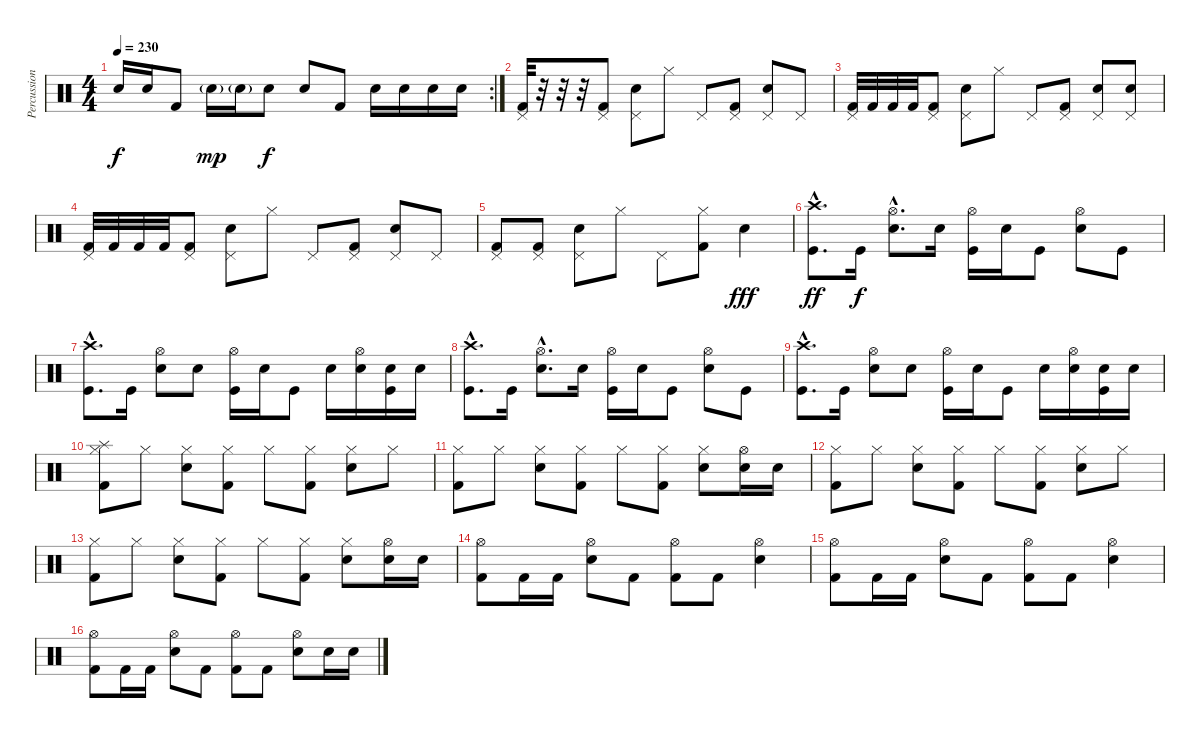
\track ("Percussion" "Percussion") {instrument percussion}
\staff {score}
\articulation defaults
\rc 2
\ts (4 4)
\tempo 230
\clef neutral
\ks c "Electric Snare (hit)".16{dy f} "Electric Snare (hit)".16 "Kick (hit) 2".8 "Electric Snare (hit)"{g}.16{dy mp} "Electric Snare (hit)"{g}.16 "Electric Snare (hit)".8{dy f} "Electric Snare (hit)".8 "Kick (hit) 2".8 "Electric Snare (hit)".16 "Electric Snare (hit)".16 "Electric Snare (hit)".16 "Electric Snare (hit)".16
|
("Pedal Hi-Hat (hit)" "Kick (hit) 2").32 r.32 r.32 r.32 ("Pedal Hi-Hat (hit)" "Kick (hit) 2").8 ("Pedal Hi-Hat (hit)" "Electric Snare (hit)").8 "Hi-Hat (closed)".8 "Pedal Hi-Hat (hit)".8 ("Pedal Hi-Hat (hit)" "Kick (hit) 2").8 ("Pedal Hi-Hat (hit)" "Electric Snare (hit)").8 "Pedal Hi-Hat (hit)".8 |
("Pedal Hi-Hat (hit)" "Kick (hit) 2").32 "Kick (hit) 2".32 "Kick (hit) 2".32 "Kick (hit) 2".32 ("Pedal Hi-Hat (hit)" "Kick (hit) 2").8 ("Pedal Hi-Hat (hit)" "Electric Snare (hit)").8 "Hi-Hat (closed)".8 "Pedal Hi-Hat (hit)".8 ("Pedal Hi-Hat (hit)" "Kick (hit) 2").8 ("Pedal Hi-Hat (hit)" "Electric Snare (hit)").8 ("Pedal Hi-Hat (hit)" "Electric Snare (hit)").8 |
("Pedal Hi-Hat (hit)" "Kick (hit) 2").32 "Kick (hit) 2".32 "Kick (hit) 2".32 "Kick (hit) 2".32 ("Pedal Hi-Hat (hit)" "Kick (hit) 2").8 ("Pedal Hi-Hat (hit)" "Electric Snare (hit)").8 "Hi-Hat (closed)".8 "Pedal Hi-Hat (hit)".8 ("Pedal Hi-Hat (hit)" "Kick (hit) 2").8 ("Pedal Hi-Hat (hit)" "Electric Snare (hit)").8 "Pedal Hi-Hat (hit)".8 |
("Pedal Hi-Hat (hit)" "Kick (hit) 2").8 ("Pedal Hi-Hat (hit)" "Kick (hit) 2").8 ("Pedal Hi-Hat (hit)" "Electric Snare (hit)").8 "Hi-Hat (closed)".8 "Pedal Hi-Hat (hit)".8 ("Hi-Hat (closed)" "Kick (hit) 2").8 "Electric Snare (hit)".4{dy fff} |
("Crash high (hit)"{hac} "Kick (hit)"{hac}).8{d dy ff} "Kick (hit)".16{dy f} ("Hi-Hat (open)"{hac} "Snare (hit) 2"{hac}).8{d} "Snare (hit) 2".16 ("Hi-Hat (open)" "Kick (hit)").16 "Snare (hit) 2".16 "Kick (hit)".8 ("Hi-Hat (open)" "Snare (hit) 2").8 "Kick (hit)".8 |
("Crash high (hit)"{hac} "Kick (hit)"{hac}).8{d} "Kick (hit)".16 ("Hi-Hat (open)" "Snare (hit) 2").8 "Snare (hit) 2".8 ("Hi-Hat (open)" "Kick (hit)").16 "Snare (hit) 2".16 "Kick (hit)".8 "Snare (hit) 2".16 ("Hi-Hat (open)" "Snare (hit) 2").16 ("Snare (hit) 2" "Kick (hit)").16 "Snare (hit) 2".16 |
("Crash high (hit)"{hac} "Kick (hit)"{hac}).8{d} "Kick (hit)".16 ("Hi-Hat (open)"{hac} "Snare (hit) 2"{hac}).8{d} "Snare (hit) 2".16 ("Hi-Hat (open)" "Kick (hit)").16 "Snare (hit) 2".16 "Kick (hit)".8 ("Hi-Hat (open)" "Snare (hit) 2").8 "Kick (hit)".8 |
("Crash high (hit)"{hac} "Kick (hit)"{hac}).8{d} "Kick (hit)".16 ("Hi-Hat (open)" "Snare (hit) 2").8 "Snare (hit) 2".8 ("Hi-Hat (open)" "Kick (hit)").16 "Snare (hit) 2".16 "Kick (hit)".8 "Snare (hit) 2".16 ("Hi-Hat (open)" "Snare (hit) 2").16 ("Snare (hit) 2" "Kick (hit)").16 "Snare (hit) 2".16 |
("Kick (hit) 2" "Hi-Hat (closed)" "Splash (hit)").8 "Hi-Hat (closed)".8 ("Hi-Hat (closed)" "Electric Snare (hit)").8 ("Kick (hit) 2" "Hi-Hat (closed)").8 "Hi-Hat (closed)".8 ("Kick (hit) 2" "Hi-Hat (closed)").8 ("Hi-Hat (closed)" "Electric Snare (hit)").8 "Hi-Hat (closed)".8 |
("Kick (hit) 2" "Hi-Hat (closed)").8 "Hi-Hat (closed)".8 ("Hi-Hat (closed)" "Electric Snare (hit)").8 ("Kick (hit) 2" "Hi-Hat (closed)").8 "Hi-Hat (closed)".8 ("Kick (hit) 2" "Hi-Hat (closed)").8 ("Hi-Hat (closed)" "Electric Snare (hit)").8 ("Hi-Hat (open)" "Electric Snare (hit)").16 "Electric Snare (hit)".16 |
("Kick (hit) 2" "Hi-Hat (closed)").8 "Hi-Hat (closed)".8 ("Hi-Hat (closed)" "Electric Snare (hit)").8 ("Kick (hit) 2" "Hi-Hat (closed)").8 "Hi-Hat (closed)".8 ("Kick (hit) 2" "Hi-Hat (closed)").8 ("Hi-Hat (closed)" "Electric Snare (hit)").8 "Hi-Hat (closed)".8 |
("Kick (hit) 2" "Hi-Hat (closed)").8 "Hi-Hat (closed)".8 ("Hi-Hat (closed)" "Electric Snare (hit)").8 ("Kick (hit) 2" "Hi-Hat (closed)").8 "Hi-Hat (closed)".8 ("Kick (hit) 2" "Hi-Hat (closed)").8 ("Hi-Hat (closed)" "Electric Snare (hit)").8 ("Hi-Hat (open)" "Electric Snare (hit)").16 "Electric Snare (hit)".16 |
("Hi-Hat (open)" "Kick (hit) 2").8 "Kick (hit) 2".16 "Kick (hit) 2".16 ("Hi-Hat (open)" "Electric Snare (hit)").8 "Kick (hit) 2".8 ("Hi-Hat (open)" "Kick (hit) 2").8 "Kick (hit) 2".8 ("Hi-Hat (open)" "Electric Snare (hit)").4 |
("Hi-Hat (open)" "Kick (hit) 2").8 "Kick (hit) 2".16 "Kick (hit) 2".16 ("Hi-Hat (open)" "Electric Snare (hit)").8 "Kick (hit) 2".8 ("Hi-Hat (open)" "Kick (hit) 2").8 "Kick (hit) 2".8 ("Hi-Hat (open)" "Electric Snare (hit)").4 |
("Hi-Hat (open)" "Kick (hit) 2").8 "Kick (hit) 2".16 "Kick (hit) 2".16 ("Hi-Hat (open)" "Electric Snare (hit)").8 "Kick (hit) 2".8 ("Hi-Hat (open)" "Kick (hit) 2").8 "Kick (hit) 2".8 ("Hi-Hat (open)" "Electric Snare (hit)").8 "Electric Snare (hit)".16 "Electric Snare (hit)".16
